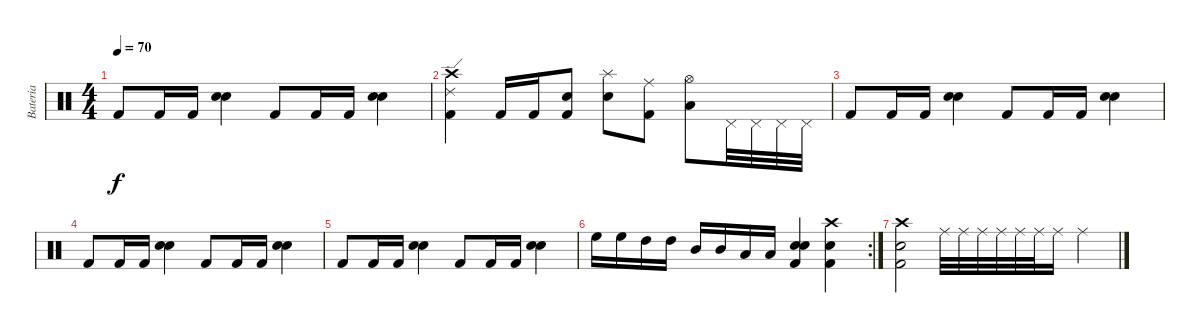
\track ("Bateria" "Bateria") {instrument percussion}
\staff {score}
\articulation defaults
\ts (4 4)
\tempo 70
\clef neutral
\ks c "Kick (hit) 2".8{dy f} "Kick (hit) 2".16 "Kick (hit) 2".16
("Electric Snare (hit)" "Snare (hit) 2").4 "Kick (hit) 2".8 "Kick (hit) 2".16 "Kick (hit) 2".16 ("Electric Snare (hit)" "Snare (hit) 2").4 |
("Ride (edge) 2" "Kick (hit) 2" "Crash high (hit)").4 "Kick (hit) 2".16 "Kick (hit) 2".16 ("Electric Snare (hit)" "Kick (hit) 2").8 ("Splash (hit)" "Electric Snare (hit)").8 ("Ride (middle)" "Kick (hit) 2").8 ("Low Tom (hit)" "Hi-Hat (open)").8 "Pedal Hi-Hat (hit)".32 "Pedal Hi-Hat (hit)".32 "Pedal Hi-Hat (hit)".32 "Pedal Hi-Hat (hit)".32 |
"Kick (hit) 2".8 "Kick (hit) 2".16 "Kick (hit) 2".16 ("Electric Snare (hit)" "Snare (hit) 2").4 "Kick (hit) 2".8 "Kick (hit) 2".16 "Kick (hit) 2".16 ("Electric Snare (hit)" "Snare (hit) 2").4 |
"Kick (hit) 2".8 "Kick (hit) 2".16 "Kick (hit) 2".16 ("Electric Snare (hit)" "Snare (hit) 2").4 "Kick (hit) 2".8 "Kick (hit) 2".16 "Kick (hit) 2".16 ("Electric Snare (hit)" "Snare (hit) 2").4 |
"Kick (hit) 2".8 "Kick (hit) 2".16 "Kick (hit) 2".16 ("Electric Snare (hit)" "Snare (hit) 2").4 "Kick (hit) 2".8 "Kick (hit) 2".16 "Kick (hit) 2".16 ("Electric Snare (hit)" "Snare (hit) 2").4 |
\rc 2 "High Floor Tom (hit)".16 "High Floor Tom (hit)".16 "High Tom (hit)".16 "High Tom (hit)".16 "Mid Tom (hit)".16 "Mid Tom (hit)".16 "Low Tom (hit)".16 "Low Tom (hit)".16
("Snare (hit) 2" "Electric Snare (hit)" "Kick (hit) 2").4 ("Crash high (hit)" "Electric Snare (hit)" "Kick (hit) 2").4 |
("Electric Snare (hit)" "Kick (hit) 2" "Crash high (hit)").2 "Ride (middle)".32 "Ride (middle)".32 "Ride (middle)".32 "Ride (middle)".32 "Ride (middle)".32 "Ride (middle)".32 "Ride (middle)".16 "Ride (middle)".4
